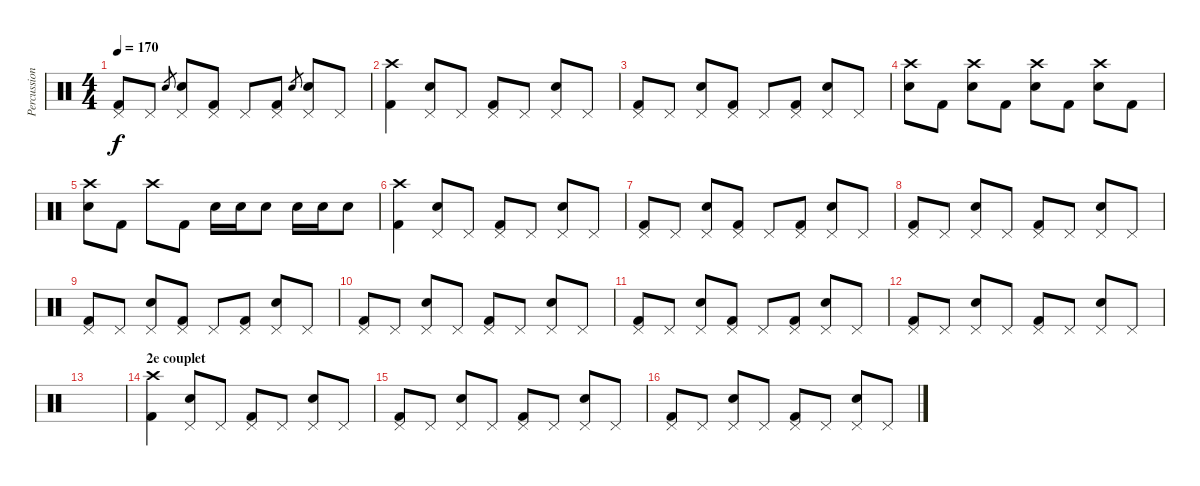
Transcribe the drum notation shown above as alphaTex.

\track ("Percussions" "Percussion") {instrument percussion}
\staff {score}
\articulation defaults
\ts (4 4)
\tempo 170
\clef neutral
\ks c
("Pedal Hi-Hat (hit)" "Kick (hit) 2").8{dy f} "Pedal Hi-Hat (hit)".8 "Electric Snare (hit)".8{gr} ("Pedal Hi-Hat (hit)" "Electric Snare (hit)").8 ("Pedal Hi-Hat (hit)" "Kick (hit) 2").8 "Pedal Hi-Hat (hit)".8 ("Pedal Hi-Hat (hit)" "Kick (hit) 2").8 "Electric Snare (hit)".8{gr} ("Pedal Hi-Hat (hit)" "Electric Snare (hit)").8 "Pedal Hi-Hat (hit)".8 |
("Crash high (hit)" "Kick (hit) 2").4 ("Pedal Hi-Hat (hit)" "Electric Snare (hit)").8 "Pedal Hi-Hat (hit)".8 ("Pedal Hi-Hat (hit)" "Kick (hit) 2").8 "Pedal Hi-Hat (hit)".8 ("Pedal Hi-Hat (hit)" "Electric Snare (hit)").8 "Pedal Hi-Hat (hit)".8 |
("Pedal Hi-Hat (hit)" "Kick (hit) 2").8 "Pedal Hi-Hat (hit)".8 ("Pedal Hi-Hat (hit)" "Electric Snare (hit)").8 ("Pedal Hi-Hat (hit)" "Kick (hit) 2").8 "Pedal Hi-Hat (hit)".8 ("Pedal Hi-Hat (hit)" "Kick (hit) 2").8 ("Pedal Hi-Hat (hit)" "Electric Snare (hit)").8 "Pedal Hi-Hat (hit)".8 |
("Crash high (hit)" "Electric Snare (hit)").8 "Kick (hit) 2".8 ("Crash high (hit)" "Electric Snare (hit)").8 "Kick (hit) 2".8 ("Crash high (hit)" "Electric Snare (hit)").8 "Kick (hit) 2".8 ("Crash high (hit)" "Electric Snare (hit)").8 "Kick (hit) 2".8 |
("Crash high (hit)" "Electric Snare (hit)").8 "Kick (hit) 2".8 "Crash high (hit)".8 "Kick (hit) 2".8 "Electric Snare (hit)".16 "Electric Snare (hit)".16 "Electric Snare (hit)".8 "Electric Snare (hit)".16 "Electric Snare (hit)".16 "Electric Snare (hit)".8 |
("Crash high (hit)" "Kick (hit) 2").4 ("Pedal Hi-Hat (hit)" "Electric Snare (hit)").8 "Pedal Hi-Hat (hit)".8 ("Pedal Hi-Hat (hit)" "Kick (hit) 2").8 "Pedal Hi-Hat (hit)".8 ("Pedal Hi-Hat (hit)" "Electric Snare (hit)").8 "Pedal Hi-Hat (hit)".8 |
("Pedal Hi-Hat (hit)" "Kick (hit) 2").8 "Pedal Hi-Hat (hit)".8 ("Pedal Hi-Hat (hit)" "Electric Snare (hit)").8 ("Pedal Hi-Hat (hit)" "Kick (hit) 2").8 "Pedal Hi-Hat (hit)".8 ("Pedal Hi-Hat (hit)" "Kick (hit) 2").8 ("Pedal Hi-Hat (hit)" "Electric Snare (hit)").8 "Pedal Hi-Hat (hit)".8 |
("Pedal Hi-Hat (hit)" "Kick (hit) 2").8 "Pedal Hi-Hat (hit)".8 ("Pedal Hi-Hat (hit)" "Electric Snare (hit)").8 "Pedal Hi-Hat (hit)".8 ("Pedal Hi-Hat (hit)" "Kick (hit) 2").8 "Pedal Hi-Hat (hit)".8 ("Pedal Hi-Hat (hit)" "Electric Snare (hit)").8 "Pedal Hi-Hat (hit)".8 |
("Pedal Hi-Hat (hit)" "Kick (hit) 2").8 "Pedal Hi-Hat (hit)".8 ("Pedal Hi-Hat (hit)" "Electric Snare (hit)").8 ("Pedal Hi-Hat (hit)" "Kick (hit) 2").8 "Pedal Hi-Hat (hit)".8 ("Pedal Hi-Hat (hit)" "Kick (hit) 2").8 ("Pedal Hi-Hat (hit)" "Electric Snare (hit)").8 "Pedal Hi-Hat (hit)".8 |
("Pedal Hi-Hat (hit)" "Kick (hit) 2").8 "Pedal Hi-Hat (hit)".8 ("Pedal Hi-Hat (hit)" "Electric Snare (hit)").8 "Pedal Hi-Hat (hit)".8 ("Pedal Hi-Hat (hit)" "Kick (hit) 2").8 "Pedal Hi-Hat (hit)".8 ("Pedal Hi-Hat (hit)" "Electric Snare (hit)").8 "Pedal Hi-Hat (hit)".8 |
("Pedal Hi-Hat (hit)" "Kick (hit) 2").8 "Pedal Hi-Hat (hit)".8 ("Pedal Hi-Hat (hit)" "Electric Snare (hit)").8 ("Pedal Hi-Hat (hit)" "Kick (hit) 2").8 "Pedal Hi-Hat (hit)".8 ("Pedal Hi-Hat (hit)" "Kick (hit) 2").8 ("Pedal Hi-Hat (hit)" "Electric Snare (hit)").8 "Pedal Hi-Hat (hit)".8 |
("Pedal Hi-Hat (hit)" "Kick (hit) 2").8 "Pedal Hi-Hat (hit)".8 ("Pedal Hi-Hat (hit)" "Electric Snare (hit)").8 "Pedal Hi-Hat (hit)".8 ("Pedal Hi-Hat (hit)" "Kick (hit) 2").8 "Pedal Hi-Hat (hit)".8 ("Pedal Hi-Hat (hit)" "Electric Snare (hit)").8 "Pedal Hi-Hat (hit)".8 |
|
\section ("" "2e couplet")
("Crash high (hit)" "Kick (hit) 2").4 ("Pedal Hi-Hat (hit)" "Electric Snare (hit)").8 "Pedal Hi-Hat (hit)".8 ("Pedal Hi-Hat (hit)" "Kick (hit) 2").8 "Pedal Hi-Hat (hit)".8 ("Pedal Hi-Hat (hit)" "Electric Snare (hit)").8 "Pedal Hi-Hat (hit)".8 |
("Pedal Hi-Hat (hit)" "Kick (hit) 2").8 "Pedal Hi-Hat (hit)".8 ("Pedal Hi-Hat (hit)" "Electric Snare (hit)").8 "Pedal Hi-Hat (hit)".8 ("Pedal Hi-Hat (hit)" "Kick (hit) 2").8 "Pedal Hi-Hat (hit)".8 ("Pedal Hi-Hat (hit)" "Electric Snare (hit)").8 "Pedal Hi-Hat (hit)".8 |
("Pedal Hi-Hat (hit)" "Kick (hit) 2").8 "Pedal Hi-Hat (hit)".8 ("Pedal Hi-Hat (hit)" "Electric Snare (hit)").8 "Pedal Hi-Hat (hit)".8 ("Pedal Hi-Hat (hit)" "Kick (hit) 2").8 "Pedal Hi-Hat (hit)".8 ("Pedal Hi-Hat (hit)" "Electric Snare (hit)").8 "Pedal Hi-Hat (hit)".8
